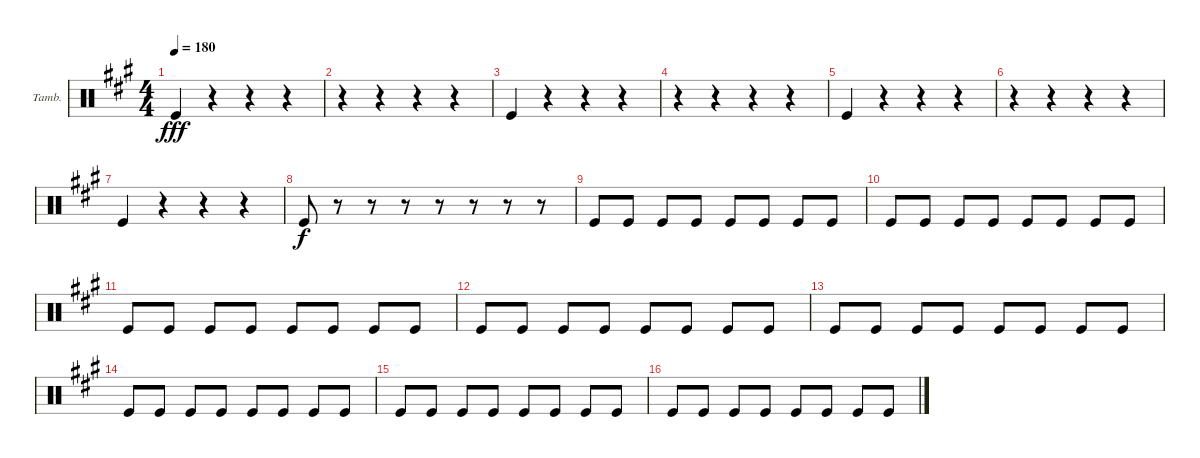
\bracketExtendMode groupsimilarinstruments
\firstSystemTrackNameOrientation horizontal
\otherSystemsTrackNameOrientation horizontal
\track ("Tambourine" "Tamb.") {instrument percussion}
\staff {score}
\articulation defaults
\ts (4 4)
\tempo 180
\clef neutral
\ks a "Kick (hit)".4{dy fff}
r.4 r.4 r.4 |
r.4 r.4 r.4 r.4 |
"Kick (hit)".4 r.4 r.4 r.4 |
r.4 r.4 r.4 r.4 |
"Kick (hit)".4 r.4 r.4 r.4 |
r.4 r.4 r.4 r.4 |
"Kick (hit)".4 r.4 r.4 r.4 |
"Kick (hit)".8{dy f} r.8 r.8 r.8 r.8 r.8 r.8 r.8 |
"Kick (hit)".8 "Kick (hit)".8 "Kick (hit)".8 "Kick (hit)".8 "Kick (hit)".8 "Kick (hit)".8 "Kick (hit)".8 "Kick (hit)".8 |
"Kick (hit)".8 "Kick (hit)".8 "Kick (hit)".8 "Kick (hit)".8 "Kick (hit)".8 "Kick (hit)".8 "Kick (hit)".8 "Kick (hit)".8 |
"Kick (hit)".8 "Kick (hit)".8 "Kick (hit)".8 "Kick (hit)".8 "Kick (hit)".8 "Kick (hit)".8 "Kick (hit)".8 "Kick (hit)".8 |
"Kick (hit)".8 "Kick (hit)".8 "Kick (hit)".8 "Kick (hit)".8 "Kick (hit)".8 "Kick (hit)".8 "Kick (hit)".8 "Kick (hit)".8 |
"Kick (hit)".8 "Kick (hit)".8 "Kick (hit)".8 "Kick (hit)".8 "Kick (hit)".8 "Kick (hit)".8 "Kick (hit)".8 "Kick (hit)".8 |
"Kick (hit)".8 "Kick (hit)".8 "Kick (hit)".8 "Kick (hit)".8 "Kick (hit)".8 "Kick (hit)".8 "Kick (hit)".8 "Kick (hit)".8 |
"Kick (hit)".8 "Kick (hit)".8 "Kick (hit)".8 "Kick (hit)".8 "Kick (hit)".8 "Kick (hit)".8 "Kick (hit)".8 "Kick (hit)".8 |
"Kick (hit)".8 "Kick (hit)".8 "Kick (hit)".8 "Kick (hit)".8 "Kick (hit)".8 "Kick (hit)".8 "Kick (hit)".8 "Kick (hit)".8
